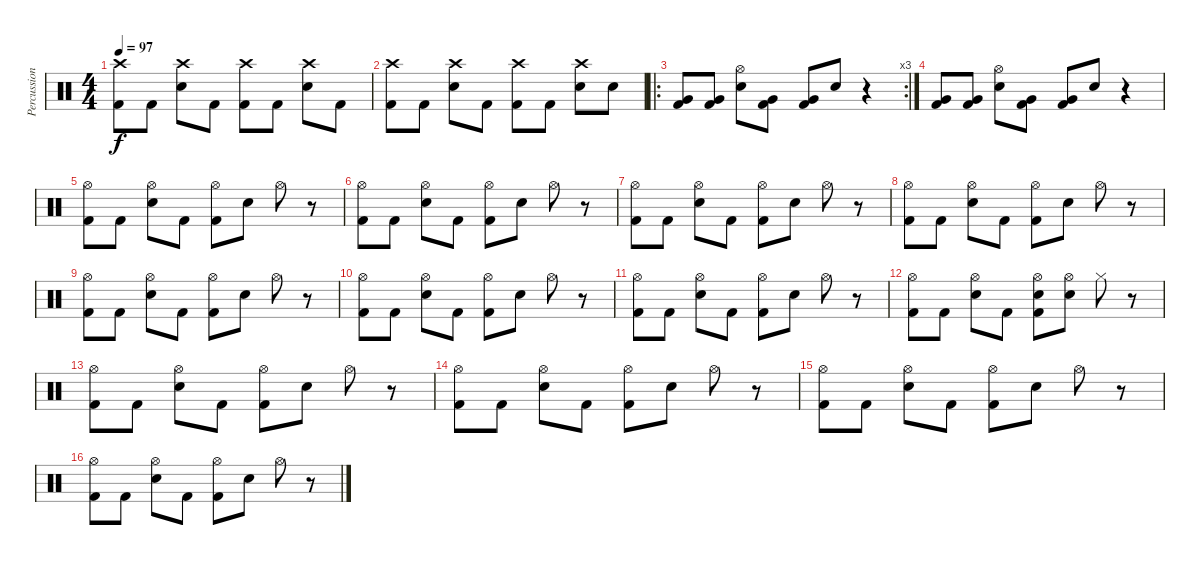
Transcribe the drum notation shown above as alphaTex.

\track ("Percussion" "Percussion") {instrument percussion}
\staff {score}
\articulation defaults
\ts (4 4)
\tempo 97
\clef neutral
\ks c
("Crash high (hit)" "Kick (hit) 2").8{dy f} "Kick (hit) 2".8 ("Crash high (hit)" "Electric Snare (hit)").8 "Kick (hit) 2".8 ("Crash high (hit)" "Kick (hit) 2").8 "Kick (hit) 2".8 ("Crash high (hit)" "Electric Snare (hit)").8 "Kick (hit) 2".8 |
("Crash high (hit)" "Kick (hit) 2").8 "Kick (hit) 2".8 ("Crash high (hit)" "Electric Snare (hit)").8 "Kick (hit) 2".8 ("Crash high (hit)" "Kick (hit) 2").8 "Kick (hit) 2".8 ("Crash high (hit)" "Electric Snare (hit)").8 "Electric Snare (hit)".8 |
\ro
\rc 3
("Very Low Tom (hit)" "Kick (hit) 2").8 ("Very Low Tom (hit)" "Kick (hit) 2").8 ("Hi-Hat (open)" "Electric Snare (hit)").8 ("Very Low Tom (hit)" "Kick (hit) 2").8 ("Very Low Tom (hit)" "Kick (hit) 2").8 "Electric Snare (hit)".8 r.4 |
("Very Low Tom (hit)" "Kick (hit) 2").8 ("Very Low Tom (hit)" "Kick (hit) 2").8 ("Hi-Hat (open)" "Electric Snare (hit)").8 ("Very Low Tom (hit)" "Kick (hit) 2").8 ("Very Low Tom (hit)" "Kick (hit) 2").8 "Electric Snare (hit)".8 r.4 |
("Hi-Hat (open)" "Kick (hit) 2").8 "Kick (hit) 2".8 ("Hi-Hat (open)" "Electric Snare (hit)").8 "Kick (hit) 2".8 ("Hi-Hat (open)" "Kick (hit) 2").8 "Electric Snare (hit)".8 "Hi-Hat (open)".8 r.8 |
("Hi-Hat (open)" "Kick (hit) 2").8 "Kick (hit) 2".8 ("Hi-Hat (open)" "Electric Snare (hit)").8 "Kick (hit) 2".8 ("Hi-Hat (open)" "Kick (hit) 2").8 "Electric Snare (hit)".8 "Hi-Hat (open)".8 r.8 |
("Hi-Hat (open)" "Kick (hit) 2").8 "Kick (hit) 2".8 ("Hi-Hat (open)" "Electric Snare (hit)").8 "Kick (hit) 2".8 ("Hi-Hat (open)" "Kick (hit) 2").8 "Electric Snare (hit)".8 "Hi-Hat (open)".8 r.8 |
("Hi-Hat (open)" "Kick (hit) 2").8 "Kick (hit) 2".8 ("Hi-Hat (open)" "Electric Snare (hit)").8 "Kick (hit) 2".8 ("Hi-Hat (open)" "Kick (hit) 2").8 "Electric Snare (hit)".8 "Hi-Hat (open)".8 r.8 |
("Hi-Hat (open)" "Kick (hit) 2").8 "Kick (hit) 2".8 ("Hi-Hat (open)" "Electric Snare (hit)").8 "Kick (hit) 2".8 ("Hi-Hat (open)" "Kick (hit) 2").8 "Electric Snare (hit)".8 "Hi-Hat (open)".8 r.8 |
("Hi-Hat (open)" "Kick (hit) 2").8 "Kick (hit) 2".8 ("Hi-Hat (open)" "Electric Snare (hit)").8 "Kick (hit) 2".8 ("Hi-Hat (open)" "Kick (hit) 2").8 "Electric Snare (hit)".8 "Hi-Hat (open)".8 r.8 |
("Hi-Hat (open)" "Kick (hit) 2").8 "Kick (hit) 2".8 ("Hi-Hat (open)" "Electric Snare (hit)").8 "Kick (hit) 2".8 ("Hi-Hat (open)" "Kick (hit) 2").8 "Electric Snare (hit)".8 "Hi-Hat (open)".8 r.8 |
("Hi-Hat (open)" "Kick (hit) 2").8 "Kick (hit) 2".8 ("Hi-Hat (open)" "Electric Snare (hit)").8 "Kick (hit) 2".8 ("Hi-Hat (open)" "Electric Snare (hit)" "Kick (hit) 2").8 ("Hi-Hat (open)" "Electric Snare (hit)").8 "Hi-Hat (closed)".8 r.8 |
("Hi-Hat (open)" "Kick (hit) 2").8 "Kick (hit) 2".8 ("Hi-Hat (open)" "Electric Snare (hit)").8 "Kick (hit) 2".8 ("Hi-Hat (open)" "Kick (hit) 2").8 "Electric Snare (hit)".8 "Hi-Hat (open)".8 r.8 |
("Hi-Hat (open)" "Kick (hit) 2").8 "Kick (hit) 2".8 ("Hi-Hat (open)" "Electric Snare (hit)").8 "Kick (hit) 2".8 ("Hi-Hat (open)" "Kick (hit) 2").8 "Electric Snare (hit)".8 "Hi-Hat (open)".8 r.8 |
("Hi-Hat (open)" "Kick (hit) 2").8 "Kick (hit) 2".8 ("Hi-Hat (open)" "Electric Snare (hit)").8 "Kick (hit) 2".8 ("Hi-Hat (open)" "Kick (hit) 2").8 "Electric Snare (hit)".8 "Hi-Hat (open)".8 r.8 |
("Hi-Hat (open)" "Kick (hit) 2").8 "Kick (hit) 2".8 ("Hi-Hat (open)" "Electric Snare (hit)").8 "Kick (hit) 2".8 ("Hi-Hat (open)" "Kick (hit) 2").8 "Electric Snare (hit)".8 "Hi-Hat (open)".8 r.8
